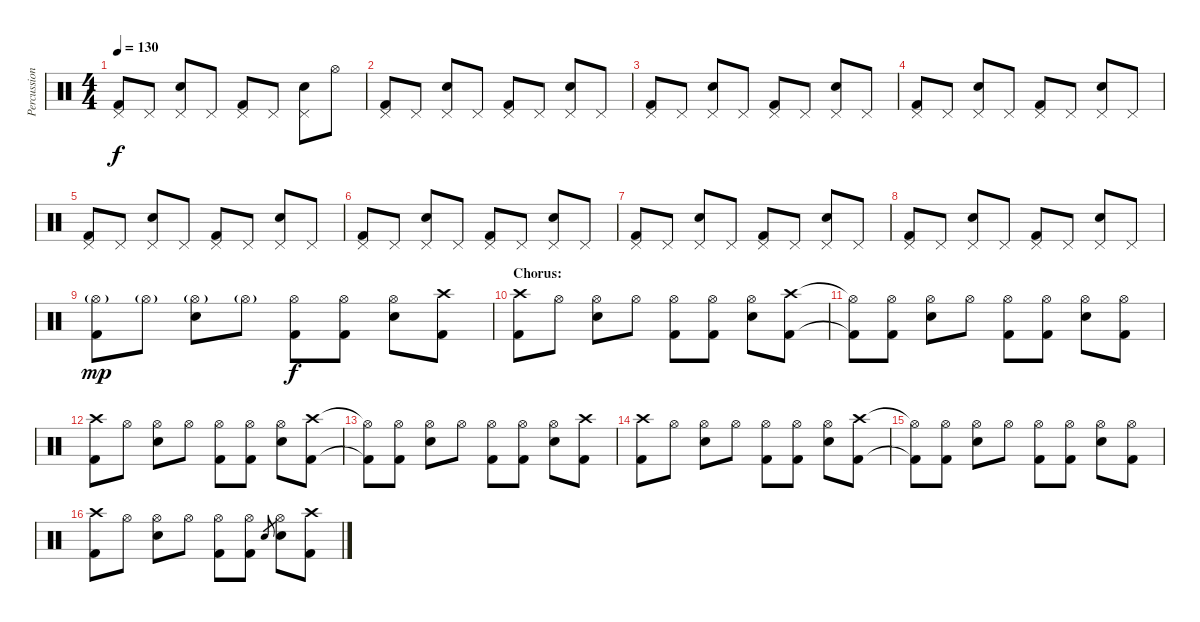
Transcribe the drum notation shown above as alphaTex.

\track ("Percussion" "Percussion") {instrument percussion}
\staff {score}
\articulation defaults
\ts (4 4)
\tempo 130
\clef neutral
\ks c
("Pedal Hi-Hat (hit)" "Kick (hit) 2").8{dy f} "Pedal Hi-Hat (hit)".8 ("Pedal Hi-Hat (hit)" "Electric Snare (hit)").8 "Pedal Hi-Hat (hit)".8 ("Pedal Hi-Hat (hit)" "Kick (hit) 2").8 "Pedal Hi-Hat (hit)".8 ("Pedal Hi-Hat (hit)" "Electric Snare (hit)").8 "Hi-Hat (open)".8 |
("Pedal Hi-Hat (hit)" "Kick (hit) 2").8 "Pedal Hi-Hat (hit)".8 ("Pedal Hi-Hat (hit)" "Electric Snare (hit)").8 "Pedal Hi-Hat (hit)".8 ("Pedal Hi-Hat (hit)" "Kick (hit) 2").8 "Pedal Hi-Hat (hit)".8 ("Pedal Hi-Hat (hit)" "Electric Snare (hit)").8 "Pedal Hi-Hat (hit)".8 |
("Pedal Hi-Hat (hit)" "Kick (hit) 2").8 "Pedal Hi-Hat (hit)".8 ("Pedal Hi-Hat (hit)" "Electric Snare (hit)").8 "Pedal Hi-Hat (hit)".8 ("Pedal Hi-Hat (hit)" "Kick (hit) 2").8 "Pedal Hi-Hat (hit)".8 ("Pedal Hi-Hat (hit)" "Electric Snare (hit)").8 "Pedal Hi-Hat (hit)".8 |
("Pedal Hi-Hat (hit)" "Kick (hit) 2").8 "Pedal Hi-Hat (hit)".8 ("Pedal Hi-Hat (hit)" "Electric Snare (hit)").8 "Pedal Hi-Hat (hit)".8 ("Pedal Hi-Hat (hit)" "Kick (hit) 2").8 "Pedal Hi-Hat (hit)".8 ("Pedal Hi-Hat (hit)" "Electric Snare (hit)").8 "Pedal Hi-Hat (hit)".8 |
("Pedal Hi-Hat (hit)" "Kick (hit) 2").8 "Pedal Hi-Hat (hit)".8 ("Pedal Hi-Hat (hit)" "Electric Snare (hit)").8 "Pedal Hi-Hat (hit)".8 ("Pedal Hi-Hat (hit)" "Kick (hit) 2").8 "Pedal Hi-Hat (hit)".8 ("Pedal Hi-Hat (hit)" "Electric Snare (hit)").8 "Pedal Hi-Hat (hit)".8 |
("Pedal Hi-Hat (hit)" "Kick (hit) 2").8 "Pedal Hi-Hat (hit)".8 ("Pedal Hi-Hat (hit)" "Electric Snare (hit)").8 "Pedal Hi-Hat (hit)".8 ("Pedal Hi-Hat (hit)" "Kick (hit) 2").8 "Pedal Hi-Hat (hit)".8 ("Pedal Hi-Hat (hit)" "Electric Snare (hit)").8 "Pedal Hi-Hat (hit)".8 |
("Pedal Hi-Hat (hit)" "Kick (hit) 2").8 "Pedal Hi-Hat (hit)".8 ("Pedal Hi-Hat (hit)" "Electric Snare (hit)").8 "Pedal Hi-Hat (hit)".8 ("Pedal Hi-Hat (hit)" "Kick (hit) 2").8 "Pedal Hi-Hat (hit)".8 ("Pedal Hi-Hat (hit)" "Electric Snare (hit)").8 "Pedal Hi-Hat (hit)".8 |
("Pedal Hi-Hat (hit)" "Kick (hit) 2").8 "Pedal Hi-Hat (hit)".8 ("Pedal Hi-Hat (hit)" "Electric Snare (hit)").8 "Pedal Hi-Hat (hit)".8 ("Pedal Hi-Hat (hit)" "Kick (hit) 2").8 "Pedal Hi-Hat (hit)".8 ("Pedal Hi-Hat (hit)" "Electric Snare (hit)").8 "Pedal Hi-Hat (hit)".8 |
("Hi-Hat (open)"{g} "Kick (hit) 2").8{dy mp} "Hi-Hat (open)"{g}.8 ("Hi-Hat (open)"{g} "Electric Snare (hit)").8 "Hi-Hat (open)"{g}.8 ("Hi-Hat (open)" "Kick (hit) 2").8{dy f} ("Hi-Hat (open)" "Kick (hit) 2").8 ("Hi-Hat (open)" "Electric Snare (hit)").8 ("Crash high (hit)" "Kick (hit) 2").8 |
\section ("" "Chorus:")
("Crash high (hit)" "Kick (hit) 2").8 "Hi-Hat (open)".8 ("Hi-Hat (open)" "Electric Snare (hit)").8 "Hi-Hat (open)".8 ("Hi-Hat (open)" "Kick (hit) 2").8 ("Hi-Hat (open)" "Kick (hit) 2").8 ("Hi-Hat (open)" "Electric Snare (hit)").8 ("Crash high (hit)" "Kick (hit) 2").8 |
("Hi-Hat (open)"{t} "Kick (hit) 2"{t}).8 ("Hi-Hat (open)" "Kick (hit) 2").8 ("Hi-Hat (open)" "Electric Snare (hit)").8 "Hi-Hat (open)".8 ("Hi-Hat (open)" "Kick (hit) 2").8 ("Hi-Hat (open)" "Kick (hit) 2").8 ("Hi-Hat (open)" "Electric Snare (hit)").8 ("Hi-Hat (open)" "Kick (hit) 2").8 |
("Crash high (hit)" "Kick (hit) 2").8 "Hi-Hat (open)".8 ("Hi-Hat (open)" "Electric Snare (hit)").8 "Hi-Hat (open)".8 ("Hi-Hat (open)" "Kick (hit) 2").8 ("Hi-Hat (open)" "Kick (hit) 2").8 ("Hi-Hat (open)" "Electric Snare (hit)").8 ("Crash high (hit)" "Kick (hit) 2").8 |
("Hi-Hat (open)"{t} "Kick (hit) 2"{t}).8 ("Hi-Hat (open)" "Kick (hit) 2").8 ("Hi-Hat (open)" "Electric Snare (hit)").8 "Hi-Hat (open)".8 ("Hi-Hat (open)" "Kick (hit) 2").8 ("Hi-Hat (open)" "Kick (hit) 2").8 ("Hi-Hat (open)" "Electric Snare (hit)").8 ("Crash high (hit)" "Kick (hit) 2").8 |
("Crash high (hit)" "Kick (hit) 2").8 "Hi-Hat (open)".8 ("Hi-Hat (open)" "Electric Snare (hit)").8 "Hi-Hat (open)".8 ("Hi-Hat (open)" "Kick (hit) 2").8 ("Hi-Hat (open)" "Kick (hit) 2").8 ("Hi-Hat (open)" "Electric Snare (hit)").8 ("Crash high (hit)" "Kick (hit) 2").8 |
("Hi-Hat (open)"{t} "Kick (hit) 2"{t}).8 ("Hi-Hat (open)" "Kick (hit) 2").8 ("Hi-Hat (open)" "Electric Snare (hit)").8 "Hi-Hat (open)".8 ("Hi-Hat (open)" "Kick (hit) 2").8 ("Hi-Hat (open)" "Kick (hit) 2").8 ("Hi-Hat (open)" "Electric Snare (hit)").8 ("Hi-Hat (open)" "Kick (hit) 2").8 |
("Crash high (hit)" "Kick (hit) 2").8 "Hi-Hat (open)".8 ("Hi-Hat (open)" "Electric Snare (hit)").8 "Hi-Hat (open)".8 ("Hi-Hat (open)" "Kick (hit) 2").8 ("Hi-Hat (open)" "Kick (hit) 2").8 "Electric Snare (hit)".8{gr} ("Hi-Hat (open)" "Electric Snare (hit)").8 ("Crash high (hit)" "Kick (hit) 2").8
